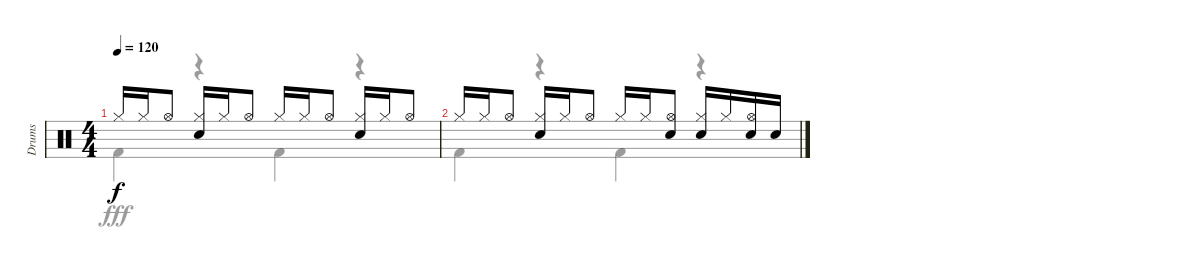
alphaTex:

\track ("Drums" "Drums") {instrument percussion}
\staff {score}
\articulation defaults
\voice
\ts (4 4)
\tempo 120
\clef neutral
\ks c "Hi-Hat (closed)".16{dy f} "Hi-Hat (closed)".16 "Hi-Hat (open)".8
("Hi-Hat (closed)" "Electric Snare (hit)").16 "Hi-Hat (closed)".16 "Hi-Hat (open)".8 "Hi-Hat (closed)".16 "Hi-Hat (closed)".16 "Hi-Hat (open)".8 ("Hi-Hat (closed)" "Electric Snare (hit)").16 "Hi-Hat (closed)".16 "Hi-Hat (open)".8 |
"Hi-Hat (closed)".16 "Hi-Hat (closed)".16 "Hi-Hat (open)".8 ("Hi-Hat (closed)" "Electric Snare (hit)").16 "Hi-Hat (closed)".16 "Hi-Hat (open)".8 "Hi-Hat (closed)".16 "Hi-Hat (closed)".16 ("Hi-Hat (open)" "Electric Snare (hit)").8 ("Hi-Hat (closed)" "Electric Snare (hit)").16 "Hi-Hat (closed)".16 ("Hi-Hat (open)" "Electric Snare (hit)").16 "Electric Snare (hit)".16
\voice
\clef neutral
\ottava regular
\simile none
\ks c "Kick (hit) 2".4{dy fff}
r.4 "Kick (hit) 2".4 r.4 |
"Kick (hit) 2".4 r.4 "Kick (hit) 2".4 r.4
